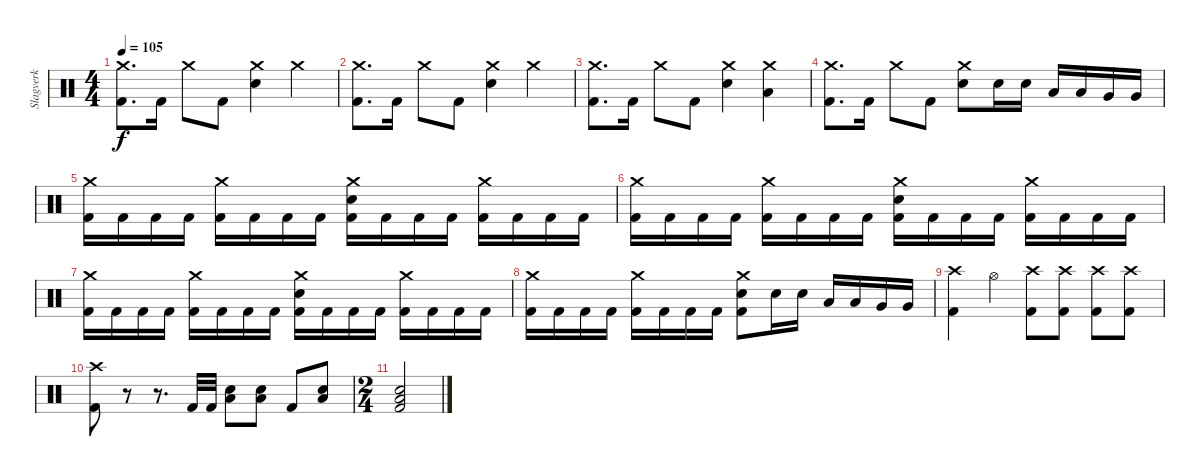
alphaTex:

\track ("Slagverk" "Slagverk") {instrument percussion}
\staff {score}
\articulation defaults
\ts (4 4)
\tempo 105
\clef neutral
\ks c
("Crash medium (hit)" "Kick (hit) 2").8{d dy f} "Kick (hit) 2".16 "Crash medium (hit)".8 "Kick (hit) 2".8 ("Crash medium (hit)" "Electric Snare (hit)").4 "Crash medium (hit)".4 |
("Crash medium (hit)" "Kick (hit) 2").8{d} "Kick (hit) 2".16 "Crash medium (hit)".8 "Kick (hit) 2".8 ("Crash medium (hit)" "Electric Snare (hit)").4 "Crash medium (hit)".4 |
("Crash medium (hit)" "Kick (hit) 2").8{d} "Kick (hit) 2".16 "Crash medium (hit)".8 "Kick (hit) 2".8 ("Crash medium (hit)" "Electric Snare (hit)").4 ("Crash medium (hit)" "Low Tom (hit)").4 |
("Crash medium (hit)" "Kick (hit) 2").8{d} "Kick (hit) 2".16 "Crash medium (hit)".8 "Kick (hit) 2".8 ("Crash medium (hit)" "Electric Snare (hit)").8 "Electric Snare (hit)".16 "Electric Snare (hit)".16 "Low Tom (hit)".16 "Low Tom (hit)".16 "Very Low Tom (hit)".16 "Very Low Tom (hit)".16 |
("Crash medium (hit)" "Kick (hit) 2").16 "Kick (hit) 2".16 "Kick (hit) 2".16 "Kick (hit) 2".16 ("Crash medium (hit)" "Kick (hit) 2").16 "Kick (hit) 2".16 "Kick (hit) 2".16 "Kick (hit) 2".16 ("Crash medium (hit)" "Electric Snare (hit)" "Kick (hit) 2").16 "Kick (hit) 2".16 "Kick (hit) 2".16 "Kick (hit) 2".16 ("Crash medium (hit)" "Kick (hit) 2").16 "Kick (hit) 2".16 "Kick (hit) 2".16 "Kick (hit) 2".16 |
("Crash medium (hit)" "Kick (hit) 2").16 "Kick (hit) 2".16 "Kick (hit) 2".16 "Kick (hit) 2".16 ("Crash medium (hit)" "Kick (hit) 2").16 "Kick (hit) 2".16 "Kick (hit) 2".16 "Kick (hit) 2".16 ("Crash medium (hit)" "Electric Snare (hit)" "Kick (hit) 2").16 "Kick (hit) 2".16 "Kick (hit) 2".16 "Kick (hit) 2".16 ("Crash medium (hit)" "Kick (hit) 2").16 "Kick (hit) 2".16 "Kick (hit) 2".16 "Kick (hit) 2".16 |
("Crash medium (hit)" "Kick (hit) 2").16 "Kick (hit) 2".16 "Kick (hit) 2".16 "Kick (hit) 2".16 ("Crash medium (hit)" "Kick (hit) 2").16 "Kick (hit) 2".16 "Kick (hit) 2".16 "Kick (hit) 2".16 ("Crash medium (hit)" "Electric Snare (hit)" "Kick (hit) 2").16 "Kick (hit) 2".16 "Kick (hit) 2".16 "Kick (hit) 2".16 ("Crash medium (hit)" "Kick (hit) 2").16 "Kick (hit) 2".16 "Kick (hit) 2".16 "Kick (hit) 2".16 |
("Crash medium (hit)" "Kick (hit) 2").16 "Kick (hit) 2".16 "Kick (hit) 2".16 "Kick (hit) 2".16 ("Crash medium (hit)" "Kick (hit) 2").16 "Kick (hit) 2".16 "Kick (hit) 2".16 "Kick (hit) 2".16 ("Crash medium (hit)" "Electric Snare (hit)" "Kick (hit) 2").8 "Electric Snare (hit)".16 "Electric Snare (hit)".16 "Low Tom (hit)".16 "Low Tom (hit)".16 "Very Low Tom (hit)".16 "Very Low Tom (hit)".16 |
("Crash high (hit)" "Kick (hit) 2").4 "Hi-Hat (open)".4 ("Crash high (hit)" "Kick (hit) 2").8 ("Crash high (hit)" "Kick (hit) 2").8 ("Crash high (hit)" "Kick (hit) 2").8 ("Crash high (hit)" "Kick (hit) 2").8 |
("Crash high (hit)" "Kick (hit) 2").8 r.8{volume 0} r.8{d} "Kick (hit) 2".32{volume 13} "Kick (hit) 2".32 ("Electric Snare (hit)" "Low Floor Tom (hit)").8 ("Electric Snare (hit)" "Low Floor Tom (hit)").8 "Kick (hit) 2".8 ("Electric Snare (hit)" "Low Floor Tom (hit)").8 |
\ts (2 4)
("Electric Snare (hit)" "Low Floor Tom (hit)" "Kick (hit) 2").2
